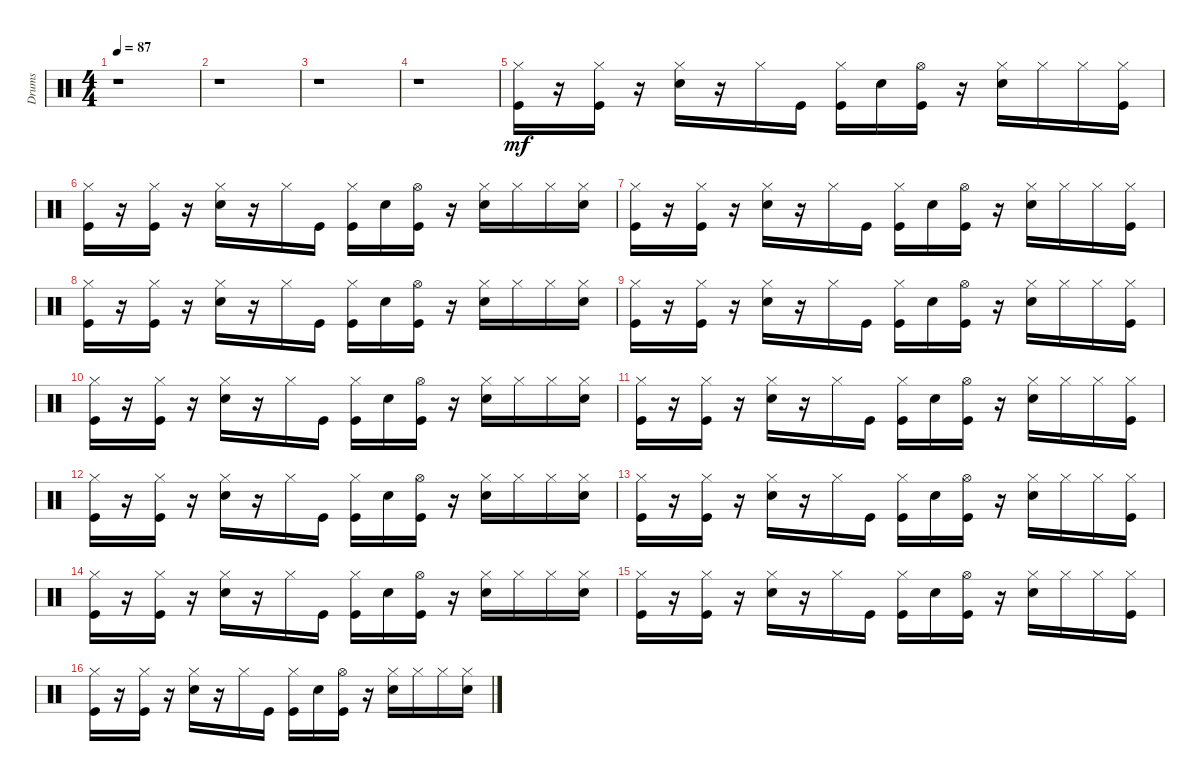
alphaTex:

\track ("Drums" "Drums") {instrument percussion}
\staff {score}
\articulation defaults
\ts (4 4)
\tempo 87
\clef neutral
\ks aminor
r.1{dy mf} |
r.1 |
r.1 |
r.1 |
("Kick (hit)" "Hi-Hat (closed)").16 r.16 ("Kick (hit)" "Hi-Hat (closed)").16 r.16 ("Electric Snare (hit)" "Hi-Hat (closed)").16 r.16 "Hi-Hat (closed)".16 "Kick (hit)".16 ("Kick (hit)" "Hi-Hat (closed)").16 "Electric Snare (hit)".16 ("Kick (hit)" "Hi-Hat (open)").16 r.16 ("Electric Snare (hit)" "Hi-Hat (closed)").16 "Hi-Hat (closed)".16 "Hi-Hat (closed)".16 ("Kick (hit)" "Hi-Hat (closed)").16 |
("Kick (hit)" "Hi-Hat (closed)").16 r.16 ("Kick (hit)" "Hi-Hat (closed)").16 r.16 ("Electric Snare (hit)" "Hi-Hat (closed)").16 r.16 "Hi-Hat (closed)".16 "Kick (hit)".16 ("Kick (hit)" "Hi-Hat (closed)").16 "Electric Snare (hit)".16 ("Kick (hit)" "Hi-Hat (open)").16 r.16 ("Electric Snare (hit)" "Hi-Hat (closed)").16 "Hi-Hat (closed)".16 "Hi-Hat (closed)".16 ("Electric Snare (hit)" "Hi-Hat (closed)").16 |
("Kick (hit)" "Hi-Hat (closed)").16 r.16 ("Kick (hit)" "Hi-Hat (closed)").16 r.16 ("Electric Snare (hit)" "Hi-Hat (closed)").16 r.16 "Hi-Hat (closed)".16 "Kick (hit)".16 ("Kick (hit)" "Hi-Hat (closed)").16 "Electric Snare (hit)".16 ("Kick (hit)" "Hi-Hat (open)").16 r.16 ("Electric Snare (hit)" "Hi-Hat (closed)").16 "Hi-Hat (closed)".16 "Hi-Hat (closed)".16 ("Kick (hit)" "Hi-Hat (closed)").16 |
("Kick (hit)" "Hi-Hat (closed)").16 r.16 ("Kick (hit)" "Hi-Hat (closed)").16 r.16 ("Electric Snare (hit)" "Hi-Hat (closed)").16 r.16 "Hi-Hat (closed)".16 "Kick (hit)".16 ("Kick (hit)" "Hi-Hat (closed)").16 "Electric Snare (hit)".16 ("Kick (hit)" "Hi-Hat (open)").16 r.16 ("Electric Snare (hit)" "Hi-Hat (closed)").16 "Hi-Hat (closed)".16 "Hi-Hat (closed)".16 ("Electric Snare (hit)" "Hi-Hat (closed)").16 |
("Kick (hit)" "Hi-Hat (closed)").16 r.16 ("Kick (hit)" "Hi-Hat (closed)").16 r.16 ("Electric Snare (hit)" "Hi-Hat (closed)").16 r.16 "Hi-Hat (closed)".16 "Kick (hit)".16 ("Kick (hit)" "Hi-Hat (closed)").16 "Electric Snare (hit)".16 ("Kick (hit)" "Hi-Hat (open)").16 r.16 ("Electric Snare (hit)" "Hi-Hat (closed)").16 "Hi-Hat (closed)".16 "Hi-Hat (closed)".16 ("Kick (hit)" "Hi-Hat (closed)").16 |
("Kick (hit)" "Hi-Hat (closed)").16 r.16 ("Kick (hit)" "Hi-Hat (closed)").16 r.16 ("Electric Snare (hit)" "Hi-Hat (closed)").16 r.16 "Hi-Hat (closed)".16 "Kick (hit)".16 ("Kick (hit)" "Hi-Hat (closed)").16 "Electric Snare (hit)".16 ("Kick (hit)" "Hi-Hat (open)").16 r.16 ("Electric Snare (hit)" "Hi-Hat (closed)").16 "Hi-Hat (closed)".16 "Hi-Hat (closed)".16 ("Electric Snare (hit)" "Hi-Hat (closed)").16 |
("Kick (hit)" "Hi-Hat (closed)").16 r.16 ("Kick (hit)" "Hi-Hat (closed)").16 r.16 ("Electric Snare (hit)" "Hi-Hat (closed)").16 r.16 "Hi-Hat (closed)".16 "Kick (hit)".16 ("Kick (hit)" "Hi-Hat (closed)").16 "Electric Snare (hit)".16 ("Kick (hit)" "Hi-Hat (open)").16 r.16 ("Electric Snare (hit)" "Hi-Hat (closed)").16 "Hi-Hat (closed)".16 "Hi-Hat (closed)".16 ("Kick (hit)" "Hi-Hat (closed)").16 |
("Kick (hit)" "Hi-Hat (closed)").16 r.16 ("Kick (hit)" "Hi-Hat (closed)").16 r.16 ("Electric Snare (hit)" "Hi-Hat (closed)").16 r.16 "Hi-Hat (closed)".16 "Kick (hit)".16 ("Kick (hit)" "Hi-Hat (closed)").16 "Electric Snare (hit)".16 ("Kick (hit)" "Hi-Hat (open)").16 r.16 ("Electric Snare (hit)" "Hi-Hat (closed)").16 "Hi-Hat (closed)".16 "Hi-Hat (closed)".16 ("Electric Snare (hit)" "Hi-Hat (closed)").16 |
("Kick (hit)" "Hi-Hat (closed)").16 r.16 ("Kick (hit)" "Hi-Hat (closed)").16 r.16 ("Electric Snare (hit)" "Hi-Hat (closed)").16 r.16 "Hi-Hat (closed)".16 "Kick (hit)".16 ("Kick (hit)" "Hi-Hat (closed)").16 "Electric Snare (hit)".16 ("Kick (hit)" "Hi-Hat (open)").16 r.16 ("Electric Snare (hit)" "Hi-Hat (closed)").16 "Hi-Hat (closed)".16 "Hi-Hat (closed)".16 ("Kick (hit)" "Hi-Hat (closed)").16 |
("Kick (hit)" "Hi-Hat (closed)").16 r.16 ("Kick (hit)" "Hi-Hat (closed)").16 r.16 ("Electric Snare (hit)" "Hi-Hat (closed)").16 r.16 "Hi-Hat (closed)".16 "Kick (hit)".16 ("Kick (hit)" "Hi-Hat (closed)").16 "Electric Snare (hit)".16 ("Kick (hit)" "Hi-Hat (open)").16 r.16 ("Electric Snare (hit)" "Hi-Hat (closed)").16 "Hi-Hat (closed)".16 "Hi-Hat (closed)".16 ("Electric Snare (hit)" "Hi-Hat (closed)").16 |
("Kick (hit)" "Hi-Hat (closed)").16 r.16 ("Kick (hit)" "Hi-Hat (closed)").16 r.16 ("Electric Snare (hit)" "Hi-Hat (closed)").16 r.16 "Hi-Hat (closed)".16 "Kick (hit)".16 ("Kick (hit)" "Hi-Hat (closed)").16 "Electric Snare (hit)".16 ("Kick (hit)" "Hi-Hat (open)").16 r.16 ("Electric Snare (hit)" "Hi-Hat (closed)").16 "Hi-Hat (closed)".16 "Hi-Hat (closed)".16 ("Kick (hit)" "Hi-Hat (closed)").16 |
("Kick (hit)" "Hi-Hat (closed)").16 r.16 ("Kick (hit)" "Hi-Hat (closed)").16 r.16 ("Electric Snare (hit)" "Hi-Hat (closed)").16 r.16 "Hi-Hat (closed)".16 "Kick (hit)".16 ("Kick (hit)" "Hi-Hat (closed)").16 "Electric Snare (hit)".16 ("Kick (hit)" "Hi-Hat (open)").16 r.16 ("Electric Snare (hit)" "Hi-Hat (closed)").16 "Hi-Hat (closed)".16 "Hi-Hat (closed)".16 ("Electric Snare (hit)" "Hi-Hat (closed)").16
